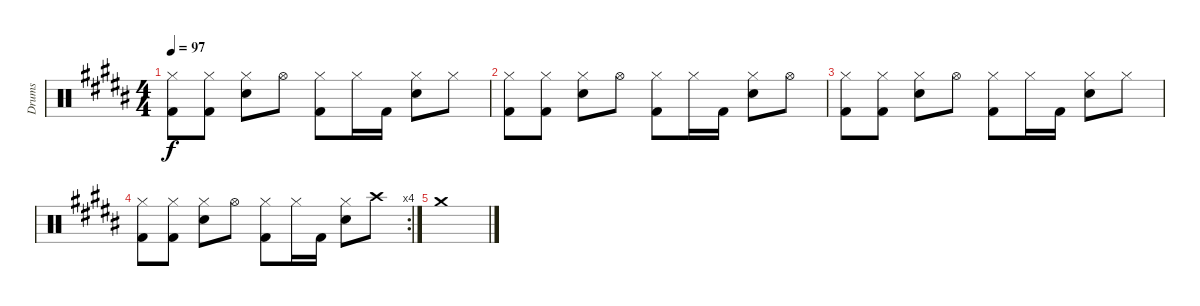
\track ("Drums" "Drums") {instrument percussion}
\staff {score}
\articulation defaults
\ts (4 4)
\tempo 97
\clef neutral
\ks b
("Hi-Hat (closed)" "Kick (hit) 2").8{dy f} ("Hi-Hat (closed)" "Kick (hit) 2").8 ("Hi-Hat (closed)" "Snare (hit) 2").8 "Hi-Hat (open)".8 ("Hi-Hat (closed)" "Kick (hit) 2").8 "Hi-Hat (closed)".16 "Kick (hit) 2".16 ("Hi-Hat (closed)" "Snare (hit) 2").8 "Hi-Hat (closed)".8 |
("Hi-Hat (closed)" "Kick (hit) 2").8 ("Hi-Hat (closed)" "Kick (hit) 2").8 ("Hi-Hat (closed)" "Snare (hit) 2").8 "Hi-Hat (open)".8 ("Hi-Hat (closed)" "Kick (hit) 2").8 "Hi-Hat (closed)".16 "Kick (hit) 2".16 ("Hi-Hat (closed)" "Snare (hit) 2").8 "Hi-Hat (open)".8 |
("Hi-Hat (closed)" "Kick (hit) 2").8 ("Hi-Hat (closed)" "Kick (hit) 2").8 ("Hi-Hat (closed)" "Snare (hit) 2").8 "Hi-Hat (open)".8 ("Hi-Hat (closed)" "Kick (hit) 2").8 "Hi-Hat (closed)".16 "Kick (hit) 2".16 ("Hi-Hat (closed)" "Snare (hit) 2").8 "Hi-Hat (closed)".8 |
\rc 4
("Hi-Hat (closed)" "Kick (hit) 2").8 ("Hi-Hat (closed)" "Kick (hit) 2").8 ("Hi-Hat (closed)" "Snare (hit) 2").8 "Hi-Hat (open)".8 ("Hi-Hat (closed)" "Kick (hit) 2").8 "Hi-Hat (closed)".16 "Kick (hit) 2".16 ("Hi-Hat (closed)" "Snare (hit) 2").8 "Crash high (hit)".8 |
"Crash medium (hit)".1
